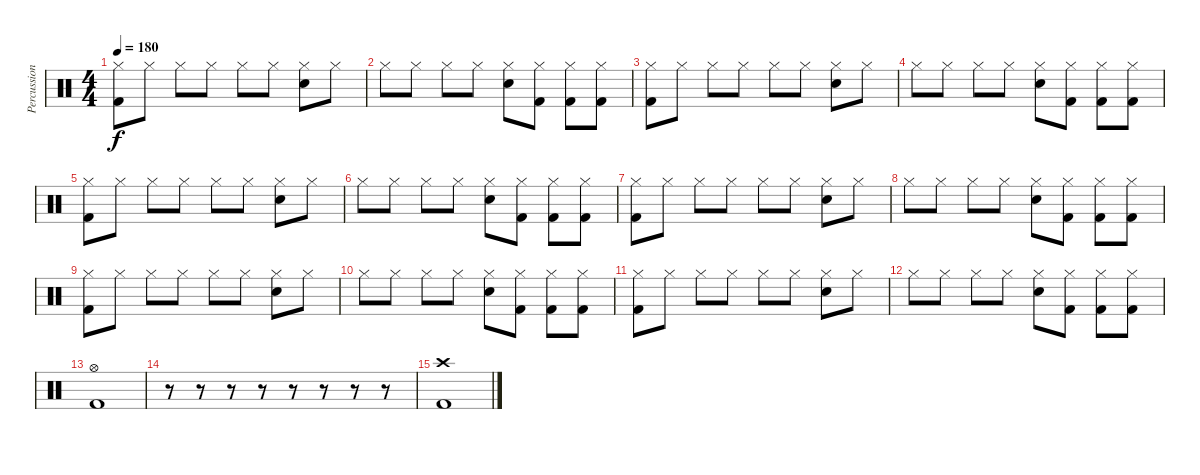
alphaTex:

\track ("Percussion" "Percussion") {instrument percussion}
\staff {score}
\articulation defaults
\ts (4 4)
\tempo 180
\clef neutral
\ks c
("Hi-Hat (closed)" "Kick (hit) 2").8{dy f} "Hi-Hat (closed)".8 "Hi-Hat (closed)".8 "Hi-Hat (closed)".8 "Hi-Hat (closed)".8 "Hi-Hat (closed)".8 ("Hi-Hat (closed)" "Electric Snare (hit)").8 "Hi-Hat (closed)".8 |
"Hi-Hat (closed)".8 "Hi-Hat (closed)".8 "Hi-Hat (closed)".8 "Hi-Hat (closed)".8 ("Hi-Hat (closed)" "Electric Snare (hit)").8 ("Hi-Hat (closed)" "Kick (hit) 2").8 ("Hi-Hat (closed)" "Kick (hit) 2").8 ("Hi-Hat (closed)" "Kick (hit) 2").8 |
("Hi-Hat (closed)" "Kick (hit) 2").8 "Hi-Hat (closed)".8 "Hi-Hat (closed)".8 "Hi-Hat (closed)".8 "Hi-Hat (closed)".8 "Hi-Hat (closed)".8 ("Hi-Hat (closed)" "Electric Snare (hit)").8 "Hi-Hat (closed)".8 |
"Hi-Hat (closed)".8 "Hi-Hat (closed)".8 "Hi-Hat (closed)".8 "Hi-Hat (closed)".8 ("Hi-Hat (closed)" "Electric Snare (hit)").8 ("Hi-Hat (closed)" "Kick (hit) 2").8 ("Hi-Hat (closed)" "Kick (hit) 2").8 ("Hi-Hat (closed)" "Kick (hit) 2").8 |
("Hi-Hat (closed)" "Kick (hit) 2").8 "Hi-Hat (closed)".8 "Hi-Hat (closed)".8 "Hi-Hat (closed)".8 "Hi-Hat (closed)".8 "Hi-Hat (closed)".8 ("Hi-Hat (closed)" "Electric Snare (hit)").8 "Hi-Hat (closed)".8 |
"Hi-Hat (closed)".8 "Hi-Hat (closed)".8 "Hi-Hat (closed)".8 "Hi-Hat (closed)".8 ("Hi-Hat (closed)" "Electric Snare (hit)").8 ("Hi-Hat (closed)" "Kick (hit) 2").8 ("Hi-Hat (closed)" "Kick (hit) 2").8 ("Hi-Hat (closed)" "Kick (hit) 2").8 |
("Hi-Hat (closed)" "Kick (hit) 2").8 "Hi-Hat (closed)".8 "Hi-Hat (closed)".8 "Hi-Hat (closed)".8 "Hi-Hat (closed)".8 "Hi-Hat (closed)".8 ("Hi-Hat (closed)" "Electric Snare (hit)").8 "Hi-Hat (closed)".8 |
"Hi-Hat (closed)".8 "Hi-Hat (closed)".8 "Hi-Hat (closed)".8 "Hi-Hat (closed)".8 ("Hi-Hat (closed)" "Electric Snare (hit)").8 ("Hi-Hat (closed)" "Kick (hit) 2").8 ("Hi-Hat (closed)" "Kick (hit) 2").8 ("Hi-Hat (closed)" "Kick (hit) 2").8 |
("Hi-Hat (closed)" "Kick (hit) 2").8 "Hi-Hat (closed)".8 "Hi-Hat (closed)".8 "Hi-Hat (closed)".8 "Hi-Hat (closed)".8 "Hi-Hat (closed)".8 ("Hi-Hat (closed)" "Electric Snare (hit)").8 "Hi-Hat (closed)".8 |
"Hi-Hat (closed)".8 "Hi-Hat (closed)".8 "Hi-Hat (closed)".8 "Hi-Hat (closed)".8 ("Hi-Hat (closed)" "Electric Snare (hit)").8 ("Hi-Hat (closed)" "Kick (hit) 2").8 ("Hi-Hat (closed)" "Kick (hit) 2").8 ("Hi-Hat (closed)" "Kick (hit) 2").8 |
("Hi-Hat (closed)" "Kick (hit) 2").8 "Hi-Hat (closed)".8 "Hi-Hat (closed)".8 "Hi-Hat (closed)".8 "Hi-Hat (closed)".8 "Hi-Hat (closed)".8 ("Hi-Hat (closed)" "Electric Snare (hit)").8 "Hi-Hat (closed)".8 |
"Hi-Hat (closed)".8 "Hi-Hat (closed)".8 "Hi-Hat (closed)".8 "Hi-Hat (closed)".8 ("Hi-Hat (closed)" "Electric Snare (hit)").8 ("Hi-Hat (closed)" "Kick (hit) 2").8 ("Hi-Hat (closed)" "Kick (hit) 2").8 ("Hi-Hat (closed)" "Kick (hit) 2").8 |
("Hi-Hat (open)" "Kick (hit) 2").1 |
r.8 r.8 r.8 r.8 r.8 r.8 r.8 r.8 |
("Crash high (hit)" "Kick (hit) 2").1
